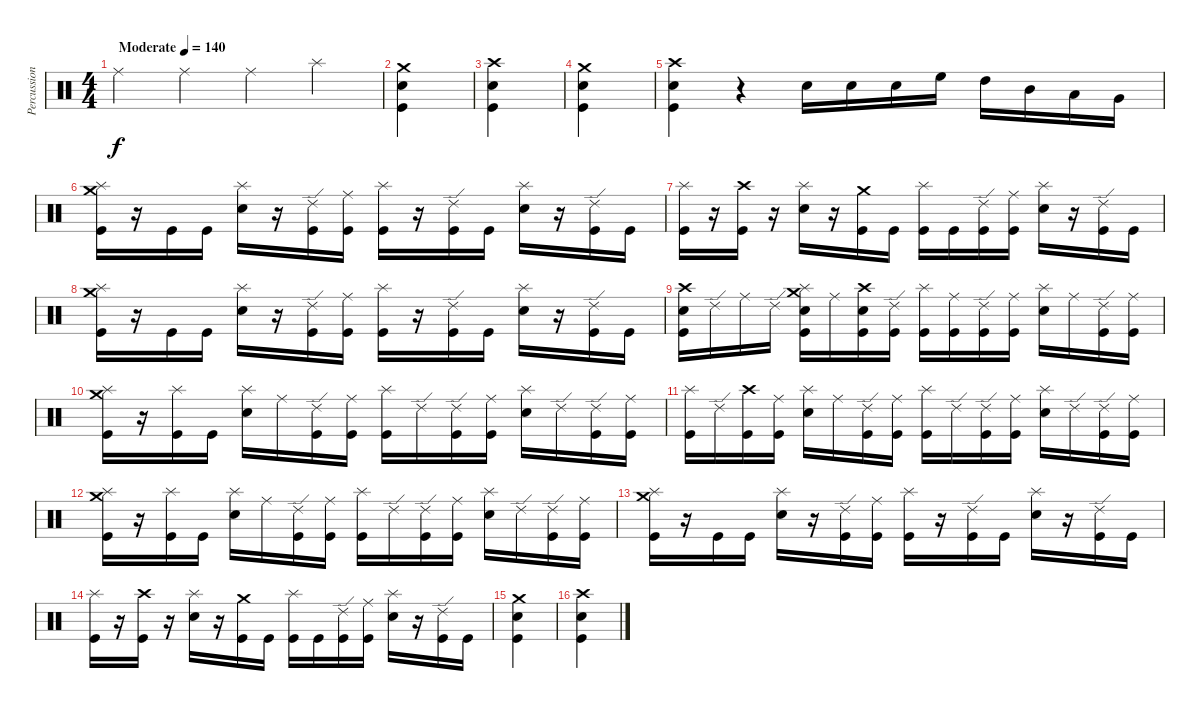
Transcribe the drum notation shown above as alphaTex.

\track ("Percussion" "Percussion") {instrument percussion}
\staff {score}
\articulation defaults
\ts (4 4)
\tempo (140 "Moderate")
\clef neutral
\ks c "Ride (middle)".4{dy f} "Ride (middle)".4 "Ride (middle)".4 "Splash (hit)".4
|
("Crash medium (hit)" "Electric Snare (hit)" "Kick (hit)").4 |
("Crash high (hit)" "Electric Snare (hit)" "Kick (hit)").4 |
("Crash medium (hit)" "Electric Snare (hit)" "Kick (hit)").4 |
("Crash high (hit)" "Electric Snare (hit)" "Kick (hit)").4 r.4 "Electric Snare (hit)".16 "Electric Snare (hit)".16 "Electric Snare (hit)".16 "High Floor Tom (hit)".16 "High Tom (hit)".16 "Mid Tom (hit)".16 "Low Tom (hit)".16 "Very Low Tom (hit)".16 |
("Crash medium (hit)" "Splash (hit)" "Kick (hit)").16 r.16 "Kick (hit)".16 "Kick (hit)".16 ("Electric Snare (hit)" "Splash (hit)").16 r.16 ("Ride (edge) 2" "Kick (hit)").16 ("Ride (middle)" "Kick (hit)").16 ("Splash (hit)" "Kick (hit)").16 r.16 ("Ride (edge) 2" "Kick (hit)").16 "Kick (hit)".16 ("Electric Snare (hit)" "Splash (hit)").16 r.16 ("Ride (edge) 2" "Kick (hit)").16 "Kick (hit)".16 |
("Splash (hit)" "Kick (hit)").16 r.16 ("Crash high (hit)" "Kick (hit)").16 r.16 ("Electric Snare (hit)" "Splash (hit)").16 r.16 ("Crash medium (hit)" "Kick (hit)").16 "Kick (hit)".16 ("Splash (hit)" "Kick (hit)").16 "Kick (hit)".16 ("Ride (edge) 2" "Kick (hit)").16 ("Ride (middle)" "Kick (hit)").16 ("Electric Snare (hit)" "Splash (hit)").16 r.16 ("Ride (edge) 2" "Kick (hit)").16 "Kick (hit)".16 |
("Crash medium (hit)" "Splash (hit)" "Kick (hit)").16 r.16 "Kick (hit)".16 "Kick (hit)".16 ("Electric Snare (hit)" "Splash (hit)").16 r.16 ("Ride (edge) 2" "Kick (hit)").16 ("Ride (middle)" "Kick (hit)").16 ("Splash (hit)" "Kick (hit)").16 r.16 ("Ride (edge) 2" "Kick (hit)").16 "Kick (hit)".16 ("Electric Snare (hit)" "Splash (hit)").16 r.16 ("Ride (edge) 2" "Kick (hit)").16 "Kick (hit)".16 |
("Crash high (hit)" "Electric Snare (hit)" "Kick (hit)").16 "Ride (edge) 2".16 "Ride (middle)".16 "Ride (edge) 2".16 ("Crash medium (hit)" "Electric Snare (hit)" "Splash (hit)" "Kick (hit)").16 "Ride (middle)".16 ("Crash high (hit)" "Electric Snare (hit)" "Kick (hit)").16 ("Ride (edge) 2" "Kick (hit)").16 ("Splash (hit)" "Kick (hit)").16 ("Ride (middle)" "Kick (hit)").16 ("Ride (edge) 2" "Kick (hit)").16 ("Ride (middle)" "Kick (hit)").16 ("Electric Snare (hit)" "Splash (hit)").16 "Ride (middle)".16 ("Ride (edge) 2" "Kick (hit)").16 ("Ride (middle)" "Kick (hit)").16 |
("Crash medium (hit)" "Splash (hit)" "Kick (hit)").16 r.16 ("Splash (hit)" "Kick (hit)").16 "Kick (hit)".16 ("Electric Snare (hit)" "Splash (hit)").16 "Ride (middle)".16 ("Ride (edge) 2" "Kick (hit)").16 ("Ride (middle)" "Kick (hit)").16 ("Splash (hit)" "Kick (hit)").16 "Ride (edge) 2".16 ("Ride (edge) 2" "Kick (hit)").16 ("Ride (middle)" "Kick (hit)").16 ("Electric Snare (hit)" "Splash (hit)").16 "Ride (edge) 2".16 ("Ride (edge) 2" "Kick (hit)").16 ("Ride (middle)" "Kick (hit)").16 |
("Splash (hit)" "Kick (hit)").16 "Ride (edge) 2".16 ("Crash high (hit)" "Kick (hit)").16 ("Ride (middle)" "Kick (hit)").16 ("Electric Snare (hit)" "Splash (hit)").16 "Ride (middle)".16 ("Ride (edge) 2" "Kick (hit)").16 ("Ride (middle)" "Kick (hit)").16 ("Splash (hit)" "Kick (hit)").16 "Ride (edge) 2".16 ("Ride (edge) 2" "Kick (hit)").16 ("Ride (middle)" "Kick (hit)").16 ("Electric Snare (hit)" "Splash (hit)").16 "Ride (edge) 2".16 ("Ride (edge) 2" "Kick (hit)").16 ("Ride (middle)" "Kick (hit)").16 |
("Crash medium (hit)" "Splash (hit)" "Kick (hit)").16 r.16 ("Splash (hit)" "Kick (hit)").16 "Kick (hit)".16 ("Electric Snare (hit)" "Splash (hit)").16 "Ride (middle)".16 ("Ride (edge) 2" "Kick (hit)").16 ("Ride (middle)" "Kick (hit)").16 ("Splash (hit)" "Kick (hit)").16 "Ride (edge) 2".16 ("Ride (edge) 2" "Kick (hit)").16 ("Ride (middle)" "Kick (hit)").16 ("Electric Snare (hit)" "Splash (hit)").16 "Ride (edge) 2".16 ("Ride (edge) 2" "Kick (hit)").16 ("Ride (middle)" "Kick (hit)").16 |
("Crash medium (hit)" "Splash (hit)" "Kick (hit)").16 r.16 "Kick (hit)".16 "Kick (hit)".16 ("Electric Snare (hit)" "Splash (hit)").16 r.16 ("Ride (edge) 2" "Kick (hit)").16 ("Ride (middle)" "Kick (hit)").16 ("Splash (hit)" "Kick (hit)").16 r.16 ("Ride (edge) 2" "Kick (hit)").16 "Kick (hit)".16 ("Electric Snare (hit)" "Splash (hit)").16 r.16 ("Ride (edge) 2" "Kick (hit)").16 "Kick (hit)".16 |
("Splash (hit)" "Kick (hit)").16 r.16 ("Crash high (hit)" "Kick (hit)").16 r.16 ("Electric Snare (hit)" "Splash (hit)").16 r.16 ("Crash medium (hit)" "Kick (hit)").16 "Kick (hit)".16 ("Splash (hit)" "Kick (hit)").16 "Kick (hit)".16 ("Ride (edge) 2" "Kick (hit)").16 ("Ride (middle)" "Kick (hit)").16 ("Electric Snare (hit)" "Splash (hit)").16 r.16 ("Ride (edge) 2" "Kick (hit)").16 "Kick (hit)".16 |
("Crash medium (hit)" "Electric Snare (hit)" "Kick (hit)").4 |
("Crash high (hit)" "Electric Snare (hit)" "Kick (hit)").4
